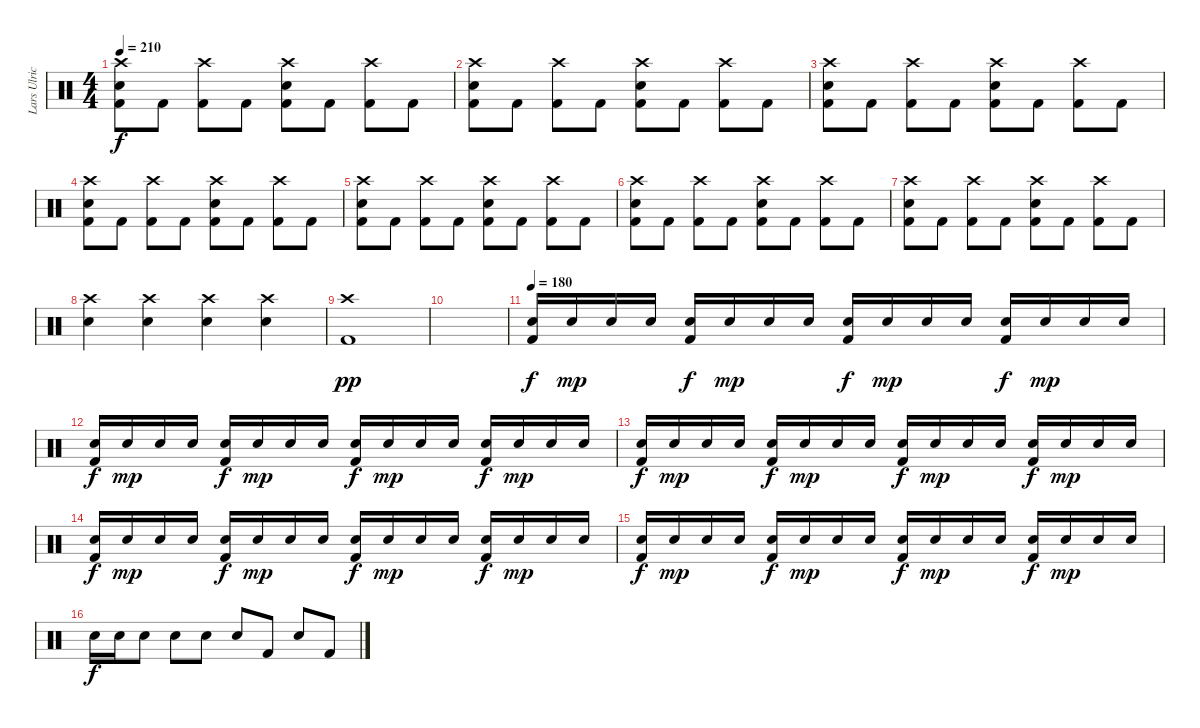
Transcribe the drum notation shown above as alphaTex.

\track ("Lars Ulrich" "Lars Ulric") {instrument percussion}
\staff {score}
\articulation defaults
\ts (4 4)
\tempo 210
\clef neutral
\ks c
("Kick (hit) 2" "Snare (hit) 2" "Crash high (hit)").8{dy f} "Kick (hit) 2".8 ("Kick (hit) 2" "Crash high (hit)").8 "Kick (hit) 2".8 ("Kick (hit) 2" "Snare (hit) 2" "Crash high (hit)").8 "Kick (hit) 2".8 ("Kick (hit) 2" "Crash high (hit)").8 "Kick (hit) 2".8 |
("Kick (hit) 2" "Snare (hit) 2" "Crash high (hit)").8 "Kick (hit) 2".8 ("Kick (hit) 2" "Crash high (hit)").8 "Kick (hit) 2".8 ("Kick (hit) 2" "Snare (hit) 2" "Crash high (hit)").8 "Kick (hit) 2".8 ("Kick (hit) 2" "Crash high (hit)").8 "Kick (hit) 2".8 |
("Kick (hit) 2" "Snare (hit) 2" "Crash high (hit)").8 "Kick (hit) 2".8 ("Kick (hit) 2" "Crash high (hit)").8 "Kick (hit) 2".8 ("Kick (hit) 2" "Snare (hit) 2" "Crash high (hit)").8 "Kick (hit) 2".8 ("Kick (hit) 2" "Crash high (hit)").8 "Kick (hit) 2".8 |
("Kick (hit) 2" "Snare (hit) 2" "Crash high (hit)").8 "Kick (hit) 2".8 ("Kick (hit) 2" "Crash high (hit)").8 "Kick (hit) 2".8 ("Kick (hit) 2" "Snare (hit) 2" "Crash high (hit)").8 "Kick (hit) 2".8 ("Kick (hit) 2" "Crash high (hit)").8 "Kick (hit) 2".8 |
("Kick (hit) 2" "Snare (hit) 2" "Crash high (hit)").8 "Kick (hit) 2".8 ("Kick (hit) 2" "Crash high (hit)").8 "Kick (hit) 2".8 ("Kick (hit) 2" "Snare (hit) 2" "Crash high (hit)").8 "Kick (hit) 2".8 ("Kick (hit) 2" "Crash high (hit)").8 "Kick (hit) 2".8 |
("Kick (hit) 2" "Snare (hit) 2" "Crash high (hit)").8 "Kick (hit) 2".8 ("Kick (hit) 2" "Crash high (hit)").8 "Kick (hit) 2".8 ("Kick (hit) 2" "Snare (hit) 2" "Crash high (hit)").8 "Kick (hit) 2".8 ("Kick (hit) 2" "Crash high (hit)").8 "Kick (hit) 2".8 |
("Kick (hit) 2" "Snare (hit) 2" "Crash high (hit)").8 "Kick (hit) 2".8 ("Kick (hit) 2" "Crash high (hit)").8 "Kick (hit) 2".8 ("Kick (hit) 2" "Snare (hit) 2" "Crash high (hit)").8 "Kick (hit) 2".8 ("Kick (hit) 2" "Crash high (hit)").8 "Kick (hit) 2".8 |
("Snare (hit) 2" "Crash high (hit)").4 ("Snare (hit) 2" "Crash high (hit)").4 ("Snare (hit) 2" "Crash high (hit)").4 ("Snare (hit) 2" "Crash high (hit)").4 |
("Kick (hit) 2" "Crash high (hit)").1{dy pp} |
|
\tempo 180
("Snare (hit) 2" "Kick (hit) 2").16{dy f} "Snare (hit) 2".16{dy mp} "Snare (hit) 2".16 "Snare (hit) 2".16 ("Snare (hit) 2" "Kick (hit) 2").16{dy f} "Snare (hit) 2".16{dy mp} "Snare (hit) 2".16 "Snare (hit) 2".16 ("Snare (hit) 2" "Kick (hit) 2").16{dy f} "Snare (hit) 2".16{dy mp} "Snare (hit) 2".16 "Snare (hit) 2".16 ("Snare (hit) 2" "Kick (hit) 2").16{dy f} "Snare (hit) 2".16{dy mp} "Snare (hit) 2".16 "Snare (hit) 2".16 |
("Snare (hit) 2" "Kick (hit) 2").16{dy f} "Snare (hit) 2".16{dy mp} "Snare (hit) 2".16 "Snare (hit) 2".16 ("Snare (hit) 2" "Kick (hit) 2").16{dy f} "Snare (hit) 2".16{dy mp} "Snare (hit) 2".16 "Snare (hit) 2".16 ("Snare (hit) 2" "Kick (hit) 2").16{dy f} "Snare (hit) 2".16{dy mp} "Snare (hit) 2".16 "Snare (hit) 2".16 ("Snare (hit) 2" "Kick (hit) 2").16{dy f} "Snare (hit) 2".16{dy mp} "Snare (hit) 2".16 "Snare (hit) 2".16 |
("Snare (hit) 2" "Kick (hit) 2").16{dy f} "Snare (hit) 2".16{dy mp} "Snare (hit) 2".16 "Snare (hit) 2".16 ("Snare (hit) 2" "Kick (hit) 2").16{dy f} "Snare (hit) 2".16{dy mp} "Snare (hit) 2".16 "Snare (hit) 2".16 ("Snare (hit) 2" "Kick (hit) 2").16{dy f} "Snare (hit) 2".16{dy mp} "Snare (hit) 2".16 "Snare (hit) 2".16 ("Snare (hit) 2" "Kick (hit) 2").16{dy f} "Snare (hit) 2".16{dy mp} "Snare (hit) 2".16 "Snare (hit) 2".16 |
("Snare (hit) 2" "Kick (hit) 2").16{dy f} "Snare (hit) 2".16{dy mp} "Snare (hit) 2".16 "Snare (hit) 2".16 ("Snare (hit) 2" "Kick (hit) 2").16{dy f} "Snare (hit) 2".16{dy mp} "Snare (hit) 2".16 "Snare (hit) 2".16 ("Snare (hit) 2" "Kick (hit) 2").16{dy f} "Snare (hit) 2".16{dy mp} "Snare (hit) 2".16 "Snare (hit) 2".16 ("Snare (hit) 2" "Kick (hit) 2").16{dy f} "Snare (hit) 2".16{dy mp} "Snare (hit) 2".16 "Snare (hit) 2".16 |
("Snare (hit) 2" "Kick (hit) 2").16{dy f} "Snare (hit) 2".16{dy mp} "Snare (hit) 2".16 "Snare (hit) 2".16 ("Snare (hit) 2" "Kick (hit) 2").16{dy f} "Snare (hit) 2".16{dy mp} "Snare (hit) 2".16 "Snare (hit) 2".16 ("Snare (hit) 2" "Kick (hit) 2").16{dy f} "Snare (hit) 2".16{dy mp} "Snare (hit) 2".16 "Snare (hit) 2".16 ("Snare (hit) 2" "Kick (hit) 2").16{dy f} "Snare (hit) 2".16{dy mp} "Snare (hit) 2".16 "Snare (hit) 2".16 |
"Snare (hit) 2".16{dy f} "Snare (hit) 2".16 "Snare (hit) 2".8 "Snare (hit) 2".8 "Snare (hit) 2".8 "Snare (hit) 2".8 "Kick (hit) 2".8 "Snare (hit) 2".8 "Kick (hit) 2".8
